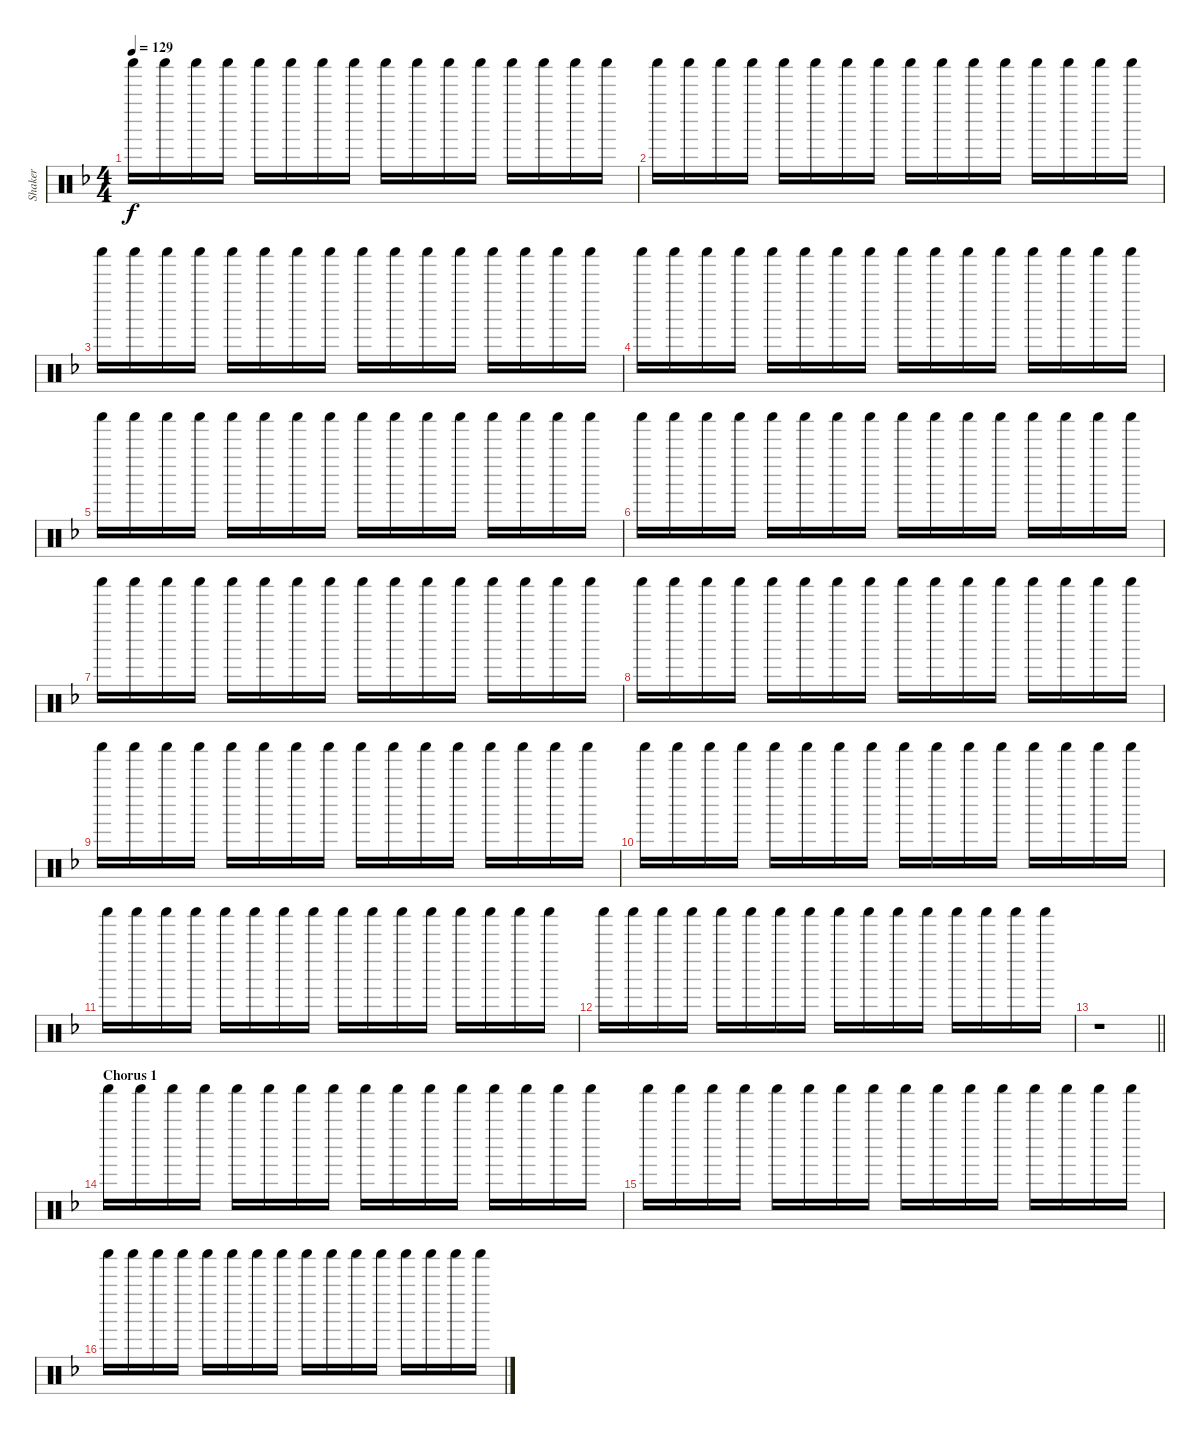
\track ("Shaker" "Shaker") {instrument percussion}
\staff {score}
\articulation defaults
\ts (4 4)
\tempo 129
\clef neutral
\ks dminor "Shaker (hit)".16{dy f} "Shaker (hit)".16 "Shaker (hit)".16 "Shaker (hit)".16 "Shaker (hit)".16 "Shaker (hit)".16 "Shaker (hit)".16 "Shaker (hit)".16 "Shaker (hit)".16 "Shaker (hit)".16 "Shaker (hit)".16 "Shaker (hit)".16 "Shaker (hit)".16 "Shaker (hit)".16 "Shaker (hit)".16 "Shaker (hit)".16
|
"Shaker (hit)".16 "Shaker (hit)".16 "Shaker (hit)".16 "Shaker (hit)".16 "Shaker (hit)".16 "Shaker (hit)".16 "Shaker (hit)".16 "Shaker (hit)".16 "Shaker (hit)".16 "Shaker (hit)".16 "Shaker (hit)".16 "Shaker (hit)".16 "Shaker (hit)".16 "Shaker (hit)".16 "Shaker (hit)".16 "Shaker (hit)".16 |
"Shaker (hit)".16 "Shaker (hit)".16 "Shaker (hit)".16 "Shaker (hit)".16 "Shaker (hit)".16 "Shaker (hit)".16 "Shaker (hit)".16 "Shaker (hit)".16 "Shaker (hit)".16 "Shaker (hit)".16 "Shaker (hit)".16 "Shaker (hit)".16 "Shaker (hit)".16 "Shaker (hit)".16 "Shaker (hit)".16 "Shaker (hit)".16 |
"Shaker (hit)".16 "Shaker (hit)".16 "Shaker (hit)".16 "Shaker (hit)".16 "Shaker (hit)".16 "Shaker (hit)".16 "Shaker (hit)".16 "Shaker (hit)".16 "Shaker (hit)".16 "Shaker (hit)".16 "Shaker (hit)".16 "Shaker (hit)".16 "Shaker (hit)".16 "Shaker (hit)".16 "Shaker (hit)".16 "Shaker (hit)".16 |
"Shaker (hit)".16 "Shaker (hit)".16 "Shaker (hit)".16 "Shaker (hit)".16 "Shaker (hit)".16 "Shaker (hit)".16 "Shaker (hit)".16 "Shaker (hit)".16 "Shaker (hit)".16 "Shaker (hit)".16 "Shaker (hit)".16 "Shaker (hit)".16 "Shaker (hit)".16 "Shaker (hit)".16 "Shaker (hit)".16 "Shaker (hit)".16 |
"Shaker (hit)".16 "Shaker (hit)".16 "Shaker (hit)".16 "Shaker (hit)".16 "Shaker (hit)".16 "Shaker (hit)".16 "Shaker (hit)".16 "Shaker (hit)".16 "Shaker (hit)".16 "Shaker (hit)".16 "Shaker (hit)".16 "Shaker (hit)".16 "Shaker (hit)".16 "Shaker (hit)".16 "Shaker (hit)".16 "Shaker (hit)".16 |
"Shaker (hit)".16 "Shaker (hit)".16 "Shaker (hit)".16 "Shaker (hit)".16 "Shaker (hit)".16 "Shaker (hit)".16 "Shaker (hit)".16 "Shaker (hit)".16 "Shaker (hit)".16 "Shaker (hit)".16 "Shaker (hit)".16 "Shaker (hit)".16 "Shaker (hit)".16 "Shaker (hit)".16 "Shaker (hit)".16 "Shaker (hit)".16 |
"Shaker (hit)".16 "Shaker (hit)".16 "Shaker (hit)".16 "Shaker (hit)".16 "Shaker (hit)".16 "Shaker (hit)".16 "Shaker (hit)".16 "Shaker (hit)".16 "Shaker (hit)".16 "Shaker (hit)".16 "Shaker (hit)".16 "Shaker (hit)".16 "Shaker (hit)".16 "Shaker (hit)".16 "Shaker (hit)".16 "Shaker (hit)".16 |
"Shaker (hit)".16 "Shaker (hit)".16 "Shaker (hit)".16 "Shaker (hit)".16 "Shaker (hit)".16 "Shaker (hit)".16 "Shaker (hit)".16 "Shaker (hit)".16 "Shaker (hit)".16 "Shaker (hit)".16 "Shaker (hit)".16 "Shaker (hit)".16 "Shaker (hit)".16 "Shaker (hit)".16 "Shaker (hit)".16 "Shaker (hit)".16 |
"Shaker (hit)".16 "Shaker (hit)".16 "Shaker (hit)".16 "Shaker (hit)".16 "Shaker (hit)".16 "Shaker (hit)".16 "Shaker (hit)".16 "Shaker (hit)".16 "Shaker (hit)".16 "Shaker (hit)".16 "Shaker (hit)".16 "Shaker (hit)".16 "Shaker (hit)".16 "Shaker (hit)".16 "Shaker (hit)".16 "Shaker (hit)".16 |
"Shaker (hit)".16 "Shaker (hit)".16 "Shaker (hit)".16 "Shaker (hit)".16 "Shaker (hit)".16 "Shaker (hit)".16 "Shaker (hit)".16 "Shaker (hit)".16 "Shaker (hit)".16 "Shaker (hit)".16 "Shaker (hit)".16 "Shaker (hit)".16 "Shaker (hit)".16 "Shaker (hit)".16 "Shaker (hit)".16 "Shaker (hit)".16 |
"Shaker (hit)".16 "Shaker (hit)".16 "Shaker (hit)".16 "Shaker (hit)".16 "Shaker (hit)".16 "Shaker (hit)".16 "Shaker (hit)".16 "Shaker (hit)".16 "Shaker (hit)".16 "Shaker (hit)".16 "Shaker (hit)".16 "Shaker (hit)".16 "Shaker (hit)".16 "Shaker (hit)".16 "Shaker (hit)".16 "Shaker (hit)".16 |
\barLineRight lightlight
r.1 |
\section ("" "Chorus 1")
"Shaker (hit)".16 "Shaker (hit)".16 "Shaker (hit)".16 "Shaker (hit)".16 "Shaker (hit)".16 "Shaker (hit)".16 "Shaker (hit)".16 "Shaker (hit)".16 "Shaker (hit)".16 "Shaker (hit)".16 "Shaker (hit)".16 "Shaker (hit)".16 "Shaker (hit)".16 "Shaker (hit)".16 "Shaker (hit)".16 "Shaker (hit)".16 |
"Shaker (hit)".16 "Shaker (hit)".16 "Shaker (hit)".16 "Shaker (hit)".16 "Shaker (hit)".16 "Shaker (hit)".16 "Shaker (hit)".16 "Shaker (hit)".16 "Shaker (hit)".16 "Shaker (hit)".16 "Shaker (hit)".16 "Shaker (hit)".16 "Shaker (hit)".16 "Shaker (hit)".16 "Shaker (hit)".16 "Shaker (hit)".16 |
"Shaker (hit)".16 "Shaker (hit)".16 "Shaker (hit)".16 "Shaker (hit)".16 "Shaker (hit)".16 "Shaker (hit)".16 "Shaker (hit)".16 "Shaker (hit)".16 "Shaker (hit)".16 "Shaker (hit)".16 "Shaker (hit)".16 "Shaker (hit)".16 "Shaker (hit)".16 "Shaker (hit)".16 "Shaker (hit)".16 "Shaker (hit)".16
